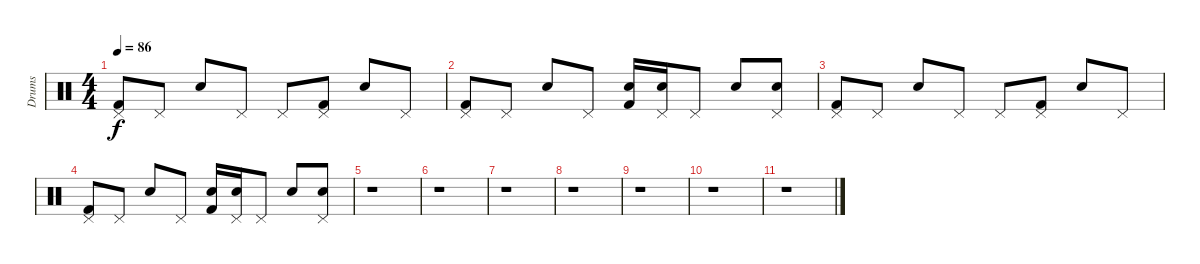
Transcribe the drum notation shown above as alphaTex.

\track ("Drums" "Drums") {instrument percussion}
\staff {score}
\articulation defaults
\ts (4 4)
\tempo 86
\clef neutral
\ks c
("Pedal Hi-Hat (hit)" "Kick (hit) 2").8{dy f} "Pedal Hi-Hat (hit)".8 "Snare (hit) 2".8 "Pedal Hi-Hat (hit)".8 "Pedal Hi-Hat (hit)".8 ("Pedal Hi-Hat (hit)" "Kick (hit) 2").8 "Snare (hit) 2".8 "Pedal Hi-Hat (hit)".8 |
("Pedal Hi-Hat (hit)" "Kick (hit) 2").8 "Pedal Hi-Hat (hit)".8 "Snare (hit) 2".8 "Pedal Hi-Hat (hit)".8 ("Snare (hit) 2" "Kick (hit) 2").16 ("Snare (hit) 2" "Pedal Hi-Hat (hit)").16 "Pedal Hi-Hat (hit)".8 "Snare (hit) 2".8 ("Snare (hit) 2" "Pedal Hi-Hat (hit)").8 |
("Pedal Hi-Hat (hit)" "Kick (hit) 2").8 "Pedal Hi-Hat (hit)".8 "Snare (hit) 2".8 "Pedal Hi-Hat (hit)".8 "Pedal Hi-Hat (hit)".8 ("Pedal Hi-Hat (hit)" "Kick (hit) 2").8 "Snare (hit) 2".8 "Pedal Hi-Hat (hit)".8 |
("Pedal Hi-Hat (hit)" "Kick (hit) 2").8 "Pedal Hi-Hat (hit)".8 "Snare (hit) 2".8 "Pedal Hi-Hat (hit)".8 ("Snare (hit) 2" "Kick (hit) 2").16 ("Snare (hit) 2" "Pedal Hi-Hat (hit)").16 "Pedal Hi-Hat (hit)".8 "Snare (hit) 2".8 ("Snare (hit) 2" "Pedal Hi-Hat (hit)").8 |
r.1 |
r.1 |
r.1 |
r.1 |
r.1 |
r.1 |
r.1
